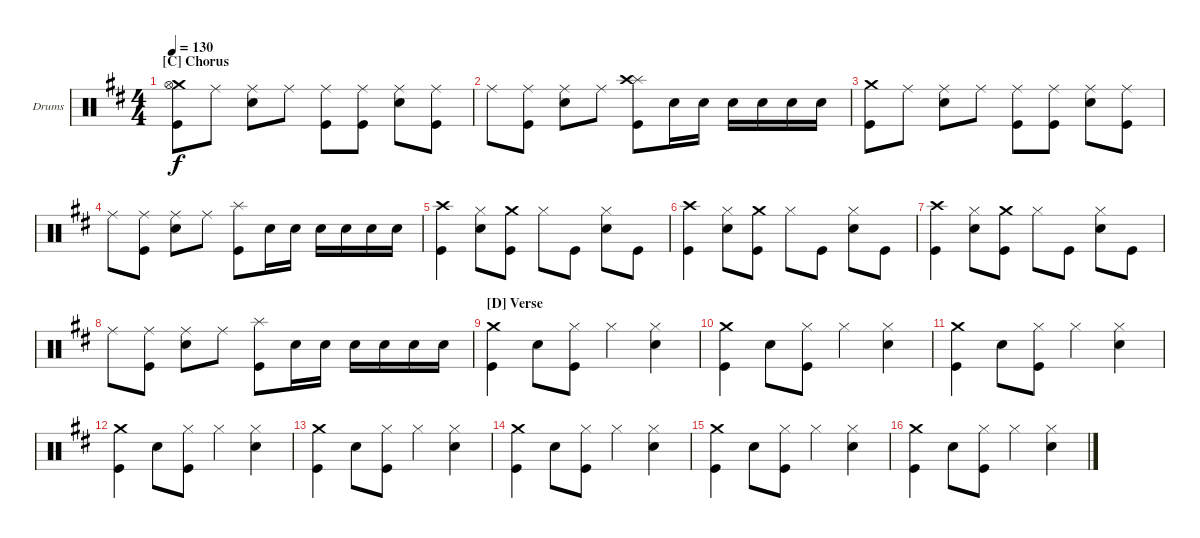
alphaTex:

\defaultSystemsLayout 4
\bracketExtendMode groupsimilarinstruments
\firstSystemTrackNameOrientation horizontal
\otherSystemsTrackNameOrientation horizontal
\track ("Drums" "Drums") {instrument percussion}
\staff {score}
\articulation defaults
\ts (4 4)
\section ("C" "Chorus")
\tempo 130
\clef neutral
\scale
1.05044
\ks d
("Crash medium (hit)" "Kick (hit)" "Hi-Hat (open)").8{dy f} "Ride (middle)".8 ("Ride (middle)" "Snare (hit) 2").8 "Ride (middle)".8 ("Ride (middle)" "Kick (hit)").8 ("Ride (middle)" "Kick (hit)").8 ("Ride (middle)" "Snare (hit) 2").8 ("Ride (middle)" "Kick (hit)").8 |
\scale
0.949559 "Ride (middle)".8 ("Ride (middle)" "Kick (hit)").8 ("Ride (middle)" "Snare (hit) 2").8 "Ride (middle)".8 ("Splash (hit)" "Kick (hit)" "Crash high (hit)").8 "Snare (hit) 2".16 "Snare (hit) 2".16 "Snare (hit) 2".16 "Snare (hit) 2".16 "Snare (hit) 2".16 "Snare (hit) 2".16 |
\scale
1.05044 ("Crash medium (hit)" "Kick (hit)").8 "Ride (middle)".8 ("Ride (middle)" "Snare (hit) 2").8 "Ride (middle)".8 ("Ride (middle)" "Kick (hit)").8 ("Ride (middle)" "Kick (hit)").8 ("Ride (middle)" "Snare (hit) 2").8 ("Ride (middle)" "Kick (hit)").8 |
\scale
0.949559 "Ride (middle)".8 ("Ride (middle)" "Kick (hit)").8 ("Ride (middle)" "Snare (hit) 2").8 "Ride (middle)".8 ("Splash (hit)" "Kick (hit)").8 "Snare (hit) 2".16 "Snare (hit) 2".16 "Snare (hit) 2".16 "Snare (hit) 2".16 "Snare (hit) 2".16 "Snare (hit) 2".16 |
\scale
1.05044 ("Crash high (hit)" "Kick (hit)").4 ("Hi-Hat (closed)" "Snare (hit) 2").8 ("Crash medium (hit)" "Kick (hit)").8 "Hi-Hat (closed)".8 "Kick (hit)".8 ("Hi-Hat (closed)" "Snare (hit) 2").8 "Kick (hit)".8 |
\scale
0.949559 ("Crash high (hit)" "Kick (hit)").4 ("Hi-Hat (closed)" "Snare (hit) 2").8 ("Crash medium (hit)" "Kick (hit)").8 "Hi-Hat (closed)".8 "Kick (hit)".8 ("Hi-Hat (closed)" "Snare (hit) 2").8 "Kick (hit)".8 |
\scale
1.05044 ("Crash high (hit)" "Kick (hit)").4 ("Hi-Hat (closed)" "Snare (hit) 2").8 ("Crash medium (hit)" "Kick (hit)").8 "Hi-Hat (closed)".8 "Kick (hit)".8 ("Hi-Hat (closed)" "Snare (hit) 2").8 "Kick (hit)".8 |
\scale
0.949559 "Ride (middle)".8 ("Ride (middle)" "Kick (hit)").8 ("Ride (middle)" "Snare (hit) 2").8 "Ride (middle)".8 ("Splash (hit)" "Kick (hit)").8 "Snare (hit) 2".16 "Snare (hit) 2".16 "Snare (hit) 2".16 "Snare (hit) 2".16 "Snare (hit) 2".16 "Snare (hit) 2".16 |
\section ("D" "Verse")
\scale
1.05044 ("Crash medium (hit)" "Kick (hit)").4 "Snare (hit) 2".8 ("Hi-Hat (closed)" "Kick (hit)").8 "Hi-Hat (closed)".4 ("Hi-Hat (closed)" "Snare (hit) 2").4 |
\scale
0.949559 ("Crash medium (hit)" "Kick (hit)").4 "Snare (hit) 2".8 ("Hi-Hat (closed)" "Kick (hit)").8 "Hi-Hat (closed)".4 ("Hi-Hat (closed)" "Snare (hit) 2").4 |
\scale
1.05044 ("Crash medium (hit)" "Kick (hit)").4 "Snare (hit) 2".8 ("Hi-Hat (closed)" "Kick (hit)").8 "Hi-Hat (closed)".4 ("Hi-Hat (closed)" "Snare (hit) 2").4 |
\scale
0.949559 ("Crash medium (hit)" "Kick (hit)").4 "Snare (hit) 2".8 ("Hi-Hat (closed)" "Kick (hit)").8 "Hi-Hat (closed)".4 ("Hi-Hat (closed)" "Snare (hit) 2").4 |
\scale
1.05044 ("Crash medium (hit)" "Kick (hit)").4 "Snare (hit) 2".8 ("Hi-Hat (closed)" "Kick (hit)").8 "Hi-Hat (closed)".4 ("Hi-Hat (closed)" "Snare (hit) 2").4 |
\scale
0.949559 ("Crash medium (hit)" "Kick (hit)").4 "Snare (hit) 2".8 ("Hi-Hat (closed)" "Kick (hit)").8 "Hi-Hat (closed)".4 ("Hi-Hat (closed)" "Snare (hit) 2").4 |
\scale
1.05044 ("Crash medium (hit)" "Kick (hit)").4 "Snare (hit) 2".8 ("Hi-Hat (closed)" "Kick (hit)").8 "Hi-Hat (closed)".4 ("Hi-Hat (closed)" "Snare (hit) 2").4 |
\scale
0.949559 ("Crash medium (hit)" "Kick (hit)").4 "Snare (hit) 2".8 ("Hi-Hat (closed)" "Kick (hit)").8 "Hi-Hat (closed)".4 ("Hi-Hat (closed)" "Snare (hit) 2").4
